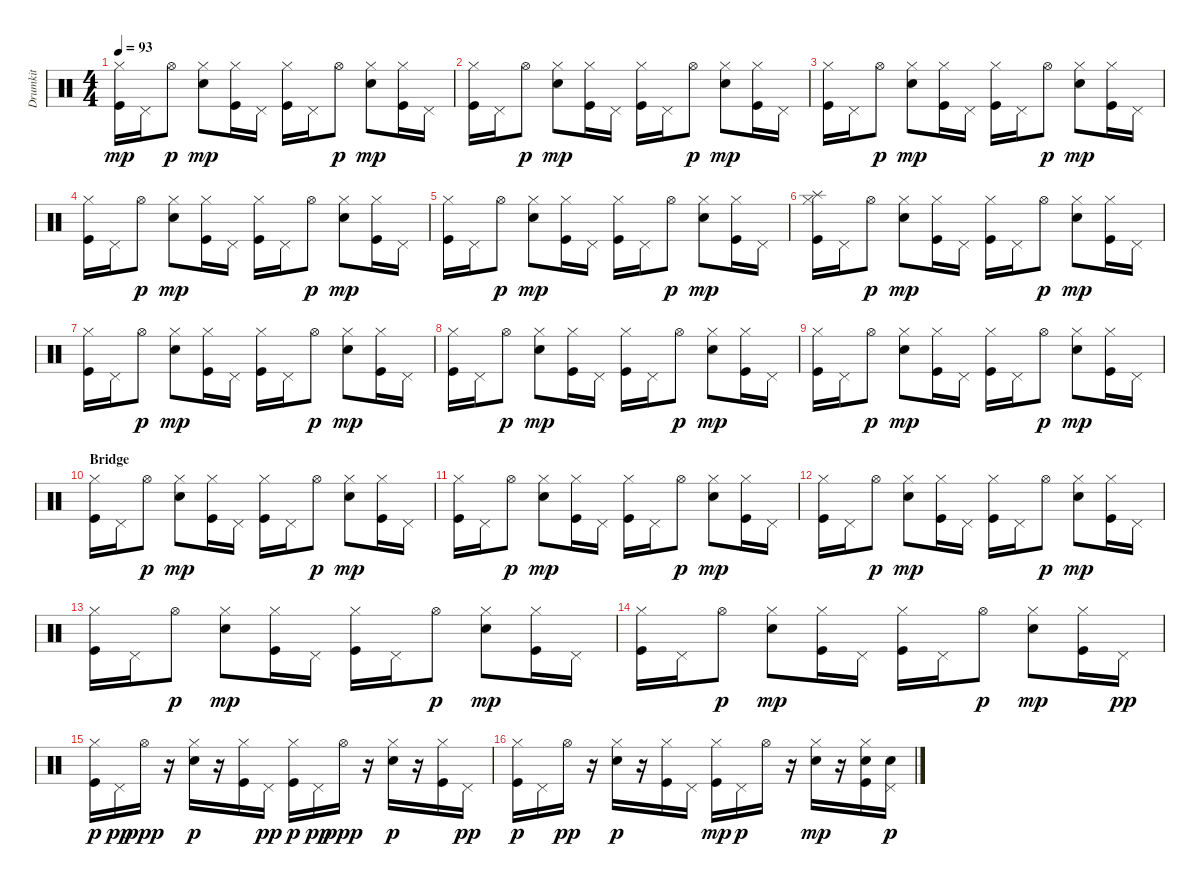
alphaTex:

\track ("Drumkit" "Drumkit") {instrument percussion}
\staff {score}
\articulation defaults
\ts (4 4)
\tempo 93
\clef neutral
\ks c
("Hi-Hat (closed)" "Kick (hit)").16{dy mp} "Pedal Hi-Hat (hit)".16 "Hi-Hat (open)".8{dy p} ("Hi-Hat (closed)" "Snare (hit) 2").8{dy mp} ("Hi-Hat (closed)" "Kick (hit)").16 "Pedal Hi-Hat (hit)".16 ("Hi-Hat (closed)" "Kick (hit)").16 "Pedal Hi-Hat (hit)".16 "Hi-Hat (open)".8{dy p} ("Hi-Hat (closed)" "Snare (hit) 2").8{dy mp} ("Hi-Hat (closed)" "Kick (hit)").16 "Pedal Hi-Hat (hit)".16 |
("Hi-Hat (closed)" "Kick (hit)").16 "Pedal Hi-Hat (hit)".16 "Hi-Hat (open)".8{dy p} ("Hi-Hat (closed)" "Snare (hit) 2").8{dy mp} ("Hi-Hat (closed)" "Kick (hit)").16 "Pedal Hi-Hat (hit)".16 ("Hi-Hat (closed)" "Kick (hit)").16 "Pedal Hi-Hat (hit)".16 "Hi-Hat (open)".8{dy p} ("Hi-Hat (closed)" "Snare (hit) 2").8{dy mp} ("Hi-Hat (closed)" "Kick (hit)").16 "Pedal Hi-Hat (hit)".16 |
("Hi-Hat (closed)" "Kick (hit)").16 "Pedal Hi-Hat (hit)".16 "Hi-Hat (open)".8{dy p} ("Hi-Hat (closed)" "Snare (hit) 2").8{dy mp} ("Hi-Hat (closed)" "Kick (hit)").16 "Pedal Hi-Hat (hit)".16 ("Hi-Hat (closed)" "Kick (hit)").16 "Pedal Hi-Hat (hit)".16 "Hi-Hat (open)".8{dy p} ("Hi-Hat (closed)" "Snare (hit) 2").8{dy mp} ("Hi-Hat (closed)" "Kick (hit)").16 "Pedal Hi-Hat (hit)".16 |
("Hi-Hat (closed)" "Kick (hit)").16 "Pedal Hi-Hat (hit)".16 "Hi-Hat (open)".8{dy p} ("Hi-Hat (closed)" "Snare (hit) 2").8{dy mp} ("Hi-Hat (closed)" "Kick (hit)").16 "Pedal Hi-Hat (hit)".16 ("Hi-Hat (closed)" "Kick (hit)").16 "Pedal Hi-Hat (hit)".16 "Hi-Hat (open)".8{dy p} ("Hi-Hat (closed)" "Snare (hit) 2").8{dy mp} ("Hi-Hat (closed)" "Kick (hit)").16 "Pedal Hi-Hat (hit)".16 |
("Hi-Hat (closed)" "Kick (hit)").16 "Pedal Hi-Hat (hit)".16 "Hi-Hat (open)".8{dy p} ("Hi-Hat (closed)" "Snare (hit) 2").8{dy mp} ("Hi-Hat (closed)" "Kick (hit)").16 "Pedal Hi-Hat (hit)".16 ("Hi-Hat (closed)" "Kick (hit)").16 "Pedal Hi-Hat (hit)".16 "Hi-Hat (open)".8{dy p} ("Hi-Hat (closed)" "Snare (hit) 2").8{dy mp} ("Hi-Hat (closed)" "Kick (hit)").16 "Pedal Hi-Hat (hit)".16 |
("Hi-Hat (closed)" "Splash (hit)" "Kick (hit)").16 "Pedal Hi-Hat (hit)".16 "Hi-Hat (open)".8{dy p} ("Hi-Hat (closed)" "Snare (hit) 2").8{dy mp} ("Hi-Hat (closed)" "Kick (hit)").16 "Pedal Hi-Hat (hit)".16 ("Hi-Hat (closed)" "Kick (hit)").16 "Pedal Hi-Hat (hit)".16 "Hi-Hat (open)".8{dy p} ("Hi-Hat (closed)" "Snare (hit) 2").8{dy mp} ("Hi-Hat (closed)" "Kick (hit)").16 "Pedal Hi-Hat (hit)".16 |
("Hi-Hat (closed)" "Kick (hit)").16 "Pedal Hi-Hat (hit)".16 "Hi-Hat (open)".8{dy p} ("Hi-Hat (closed)" "Snare (hit) 2").8{dy mp} ("Hi-Hat (closed)" "Kick (hit)").16 "Pedal Hi-Hat (hit)".16 ("Hi-Hat (closed)" "Kick (hit)").16 "Pedal Hi-Hat (hit)".16 "Hi-Hat (open)".8{dy p} ("Hi-Hat (closed)" "Snare (hit) 2").8{dy mp} ("Hi-Hat (closed)" "Kick (hit)").16 "Pedal Hi-Hat (hit)".16 |
("Hi-Hat (closed)" "Kick (hit)").16 "Pedal Hi-Hat (hit)".16 "Hi-Hat (open)".8{dy p} ("Hi-Hat (closed)" "Snare (hit) 2").8{dy mp} ("Hi-Hat (closed)" "Kick (hit)").16 "Pedal Hi-Hat (hit)".16 ("Hi-Hat (closed)" "Kick (hit)").16 "Pedal Hi-Hat (hit)".16 "Hi-Hat (open)".8{dy p} ("Hi-Hat (closed)" "Snare (hit) 2").8{dy mp} ("Hi-Hat (closed)" "Kick (hit)").16 "Pedal Hi-Hat (hit)".16 |
("Hi-Hat (closed)" "Kick (hit)").16 "Pedal Hi-Hat (hit)".16 "Hi-Hat (open)".8{dy p} ("Hi-Hat (closed)" "Snare (hit) 2").8{dy mp} ("Hi-Hat (closed)" "Kick (hit)").16 "Pedal Hi-Hat (hit)".16 ("Hi-Hat (closed)" "Kick (hit)").16 "Pedal Hi-Hat (hit)".16 "Hi-Hat (open)".8{dy p} ("Hi-Hat (closed)" "Snare (hit) 2").8{dy mp} ("Hi-Hat (closed)" "Kick (hit)").16 "Pedal Hi-Hat (hit)".16 |
\section ("" "Bridge")
("Hi-Hat (closed)" "Kick (hit)").16 "Pedal Hi-Hat (hit)".16 "Hi-Hat (open)".8{dy p} ("Hi-Hat (closed)" "Snare (hit) 2").8{dy mp} ("Hi-Hat (closed)" "Kick (hit)").16 "Pedal Hi-Hat (hit)".16 ("Hi-Hat (closed)" "Kick (hit)").16 "Pedal Hi-Hat (hit)".16 "Hi-Hat (open)".8{dy p} ("Hi-Hat (closed)" "Snare (hit) 2").8{dy mp} ("Hi-Hat (closed)" "Kick (hit)").16 "Pedal Hi-Hat (hit)".16 |
("Hi-Hat (closed)" "Kick (hit)").16 "Pedal Hi-Hat (hit)".16 "Hi-Hat (open)".8{dy p} ("Hi-Hat (closed)" "Snare (hit) 2").8{dy mp} ("Hi-Hat (closed)" "Kick (hit)").16 "Pedal Hi-Hat (hit)".16 ("Hi-Hat (closed)" "Kick (hit)").16 "Pedal Hi-Hat (hit)".16 "Hi-Hat (open)".8{dy p} ("Hi-Hat (closed)" "Snare (hit) 2").8{dy mp} ("Hi-Hat (closed)" "Kick (hit)").16 "Pedal Hi-Hat (hit)".16 |
("Hi-Hat (closed)" "Kick (hit)").16 "Pedal Hi-Hat (hit)".16 "Hi-Hat (open)".8{dy p} ("Hi-Hat (closed)" "Snare (hit) 2").8{dy mp} ("Hi-Hat (closed)" "Kick (hit)").16 "Pedal Hi-Hat (hit)".16 ("Hi-Hat (closed)" "Kick (hit)").16 "Pedal Hi-Hat (hit)".16 "Hi-Hat (open)".8{dy p} ("Hi-Hat (closed)" "Snare (hit) 2").8{dy mp} ("Hi-Hat (closed)" "Kick (hit)").16 "Pedal Hi-Hat (hit)".16 |
("Hi-Hat (closed)" "Kick (hit)").16 "Pedal Hi-Hat (hit)".16 "Hi-Hat (open)".8{dy p} ("Hi-Hat (closed)" "Snare (hit) 2").8{dy mp} ("Hi-Hat (closed)" "Kick (hit)").16 "Pedal Hi-Hat (hit)".16 ("Hi-Hat (closed)" "Kick (hit)").16 "Pedal Hi-Hat (hit)".16 "Hi-Hat (open)".8{dy p} ("Hi-Hat (closed)" "Snare (hit) 2").8{dy mp} ("Hi-Hat (closed)" "Kick (hit)").16 "Pedal Hi-Hat (hit)".16 |
("Hi-Hat (closed)" "Kick (hit)").16 "Pedal Hi-Hat (hit)".16 "Hi-Hat (open)".8{dy p} ("Hi-Hat (closed)" "Snare (hit) 2").8{dy mp} ("Hi-Hat (closed)" "Kick (hit)").16 "Pedal Hi-Hat (hit)".16 ("Hi-Hat (closed)" "Kick (hit)").16 "Pedal Hi-Hat (hit)".16 "Hi-Hat (open)".8{dy p} ("Hi-Hat (closed)" "Snare (hit) 2").8{dy mp} ("Hi-Hat (closed)" "Kick (hit)").16 "Pedal Hi-Hat (hit)".16{dy pp} |
("Hi-Hat (closed)" "Kick (hit)").16{dy p} "Pedal Hi-Hat (hit)".16{dy pp} "Hi-Hat (open)".16{dy ppp} r.16 ("Hi-Hat (closed)" "Snare (hit) 2").16{dy p} r.16 ("Hi-Hat (closed)" "Kick (hit)").16 "Pedal Hi-Hat (hit)".16{dy pp} ("Hi-Hat (closed)" "Kick (hit)").16{dy p} "Pedal Hi-Hat (hit)".16{dy pp} "Hi-Hat (open)".16{dy ppp} r.16 ("Hi-Hat (closed)" "Snare (hit) 2").16{dy p} r.16 ("Hi-Hat (closed)" "Kick (hit)").16 "Pedal Hi-Hat (hit)".16{dy pp} |
("Hi-Hat (closed)" "Kick (hit)").16{dy p} "Pedal Hi-Hat (hit)".16 "Hi-Hat (open)".16{dy pp} r.16 ("Hi-Hat (closed)" "Snare (hit) 2").16{dy p} r.16 ("Hi-Hat (closed)" "Kick (hit)").16 "Pedal Hi-Hat (hit)".16 ("Hi-Hat (closed)" "Kick (hit)").16{dy mp} "Pedal Hi-Hat (hit)".16{dy p} "Hi-Hat (open)".16 r.16 ("Hi-Hat (closed)" "Snare (hit) 2").16{dy mp} r.16 ("Hi-Hat (closed)" "Snare (hit) 2" "Kick (hit)").16 ("Pedal Hi-Hat (hit)" "Snare (hit) 2").16{dy p}
